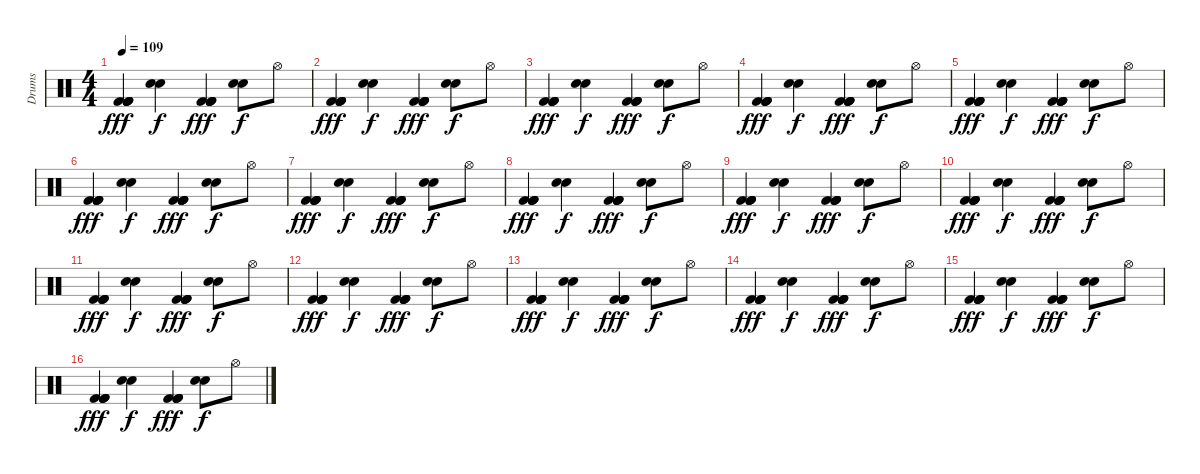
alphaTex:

\track ("Drums" "Drums") {instrument percussion}
\staff {score}
\articulation defaults
\ts (4 4)
\tempo 109
\clef neutral
\ks c
("Kick (hit) 2" "Kick (hit) 2" "Kick (hit) 2" "Kick (hit) 2").4{dy fff volume 16} ("Snare (hit) 2" "Electric Snare (hit)").4{dy f} ("Kick (hit) 2" "Kick (hit) 2" "Kick (hit) 2" "Kick (hit) 2").4{dy fff} ("Snare (hit) 2" "Electric Snare (hit)").8{dy f} "Hi-Hat (open)".8 |
("Kick (hit) 2" "Kick (hit) 2" "Kick (hit) 2" "Kick (hit) 2").4{dy fff volume 16} ("Snare (hit) 2" "Electric Snare (hit)").4{dy f} ("Kick (hit) 2" "Kick (hit) 2" "Kick (hit) 2" "Kick (hit) 2").4{dy fff} ("Snare (hit) 2" "Electric Snare (hit)").8{dy f} "Hi-Hat (open)".8 |
("Kick (hit) 2" "Kick (hit) 2" "Kick (hit) 2" "Kick (hit) 2").4{dy fff volume 16} ("Snare (hit) 2" "Electric Snare (hit)").4{dy f} ("Kick (hit) 2" "Kick (hit) 2" "Kick (hit) 2" "Kick (hit) 2").4{dy fff} ("Snare (hit) 2" "Electric Snare (hit)").8{dy f} "Hi-Hat (open)".8 |
("Kick (hit) 2" "Kick (hit) 2" "Kick (hit) 2" "Kick (hit) 2").4{dy fff volume 16} ("Snare (hit) 2" "Electric Snare (hit)").4{dy f} ("Kick (hit) 2" "Kick (hit) 2" "Kick (hit) 2" "Kick (hit) 2").4{dy fff} ("Snare (hit) 2" "Electric Snare (hit)").8{dy f} "Hi-Hat (open)".8 |
("Kick (hit) 2" "Kick (hit) 2" "Kick (hit) 2" "Kick (hit) 2").4{dy fff volume 16} ("Snare (hit) 2" "Electric Snare (hit)").4{dy f} ("Kick (hit) 2" "Kick (hit) 2" "Kick (hit) 2" "Kick (hit) 2").4{dy fff} ("Snare (hit) 2" "Electric Snare (hit)").8{dy f} "Hi-Hat (open)".8 |
("Kick (hit) 2" "Kick (hit) 2" "Kick (hit) 2" "Kick (hit) 2").4{dy fff volume 16} ("Snare (hit) 2" "Electric Snare (hit)").4{dy f} ("Kick (hit) 2" "Kick (hit) 2" "Kick (hit) 2" "Kick (hit) 2").4{dy fff} ("Snare (hit) 2" "Electric Snare (hit)").8{dy f} "Hi-Hat (open)".8 |
("Kick (hit) 2" "Kick (hit) 2" "Kick (hit) 2" "Kick (hit) 2").4{dy fff volume 16} ("Snare (hit) 2" "Electric Snare (hit)").4{dy f} ("Kick (hit) 2" "Kick (hit) 2" "Kick (hit) 2" "Kick (hit) 2").4{dy fff} ("Snare (hit) 2" "Electric Snare (hit)").8{dy f} "Hi-Hat (open)".8 |
("Kick (hit) 2" "Kick (hit) 2" "Kick (hit) 2" "Kick (hit) 2").4{dy fff volume 16} ("Snare (hit) 2" "Electric Snare (hit)").4{dy f} ("Kick (hit) 2" "Kick (hit) 2" "Kick (hit) 2" "Kick (hit) 2").4{dy fff} ("Snare (hit) 2" "Electric Snare (hit)").8{dy f} "Hi-Hat (open)".8 |
("Kick (hit) 2" "Kick (hit) 2" "Kick (hit) 2" "Kick (hit) 2").4{dy fff volume 16} ("Snare (hit) 2" "Electric Snare (hit)").4{dy f} ("Kick (hit) 2" "Kick (hit) 2" "Kick (hit) 2" "Kick (hit) 2").4{dy fff} ("Snare (hit) 2" "Electric Snare (hit)").8{dy f} "Hi-Hat (open)".8 |
("Kick (hit) 2" "Kick (hit) 2" "Kick (hit) 2" "Kick (hit) 2").4{dy fff volume 16} ("Snare (hit) 2" "Electric Snare (hit)").4{dy f} ("Kick (hit) 2" "Kick (hit) 2" "Kick (hit) 2" "Kick (hit) 2").4{dy fff} ("Snare (hit) 2" "Electric Snare (hit)").8{dy f} "Hi-Hat (open)".8 |
("Kick (hit) 2" "Kick (hit) 2" "Kick (hit) 2" "Kick (hit) 2").4{dy fff volume 16} ("Snare (hit) 2" "Electric Snare (hit)").4{dy f} ("Kick (hit) 2" "Kick (hit) 2" "Kick (hit) 2" "Kick (hit) 2").4{dy fff} ("Snare (hit) 2" "Electric Snare (hit)").8{dy f} "Hi-Hat (open)".8 |
("Kick (hit) 2" "Kick (hit) 2" "Kick (hit) 2" "Kick (hit) 2").4{dy fff volume 16} ("Snare (hit) 2" "Electric Snare (hit)").4{dy f} ("Kick (hit) 2" "Kick (hit) 2" "Kick (hit) 2" "Kick (hit) 2").4{dy fff} ("Snare (hit) 2" "Electric Snare (hit)").8{dy f} "Hi-Hat (open)".8 |
("Kick (hit) 2" "Kick (hit) 2" "Kick (hit) 2" "Kick (hit) 2").4{dy fff volume 16} ("Snare (hit) 2" "Electric Snare (hit)").4{dy f} ("Kick (hit) 2" "Kick (hit) 2" "Kick (hit) 2" "Kick (hit) 2").4{dy fff} ("Snare (hit) 2" "Electric Snare (hit)").8{dy f} "Hi-Hat (open)".8 |
("Kick (hit) 2" "Kick (hit) 2" "Kick (hit) 2" "Kick (hit) 2").4{dy fff volume 16} ("Snare (hit) 2" "Electric Snare (hit)").4{dy f} ("Kick (hit) 2" "Kick (hit) 2" "Kick (hit) 2" "Kick (hit) 2").4{dy fff} ("Snare (hit) 2" "Electric Snare (hit)").8{dy f} "Hi-Hat (open)".8 |
("Kick (hit) 2" "Kick (hit) 2" "Kick (hit) 2" "Kick (hit) 2").4{dy fff volume 16} ("Snare (hit) 2" "Electric Snare (hit)").4{dy f} ("Kick (hit) 2" "Kick (hit) 2" "Kick (hit) 2" "Kick (hit) 2").4{dy fff} ("Snare (hit) 2" "Electric Snare (hit)").8{dy f} "Hi-Hat (open)".8 |
("Kick (hit) 2" "Kick (hit) 2" "Kick (hit) 2" "Kick (hit) 2").4{dy fff volume 16} ("Snare (hit) 2" "Electric Snare (hit)").4{dy f} ("Kick (hit) 2" "Kick (hit) 2" "Kick (hit) 2" "Kick (hit) 2").4{dy fff} ("Snare (hit) 2" "Electric Snare (hit)").8{dy f} "Hi-Hat (open)".8
